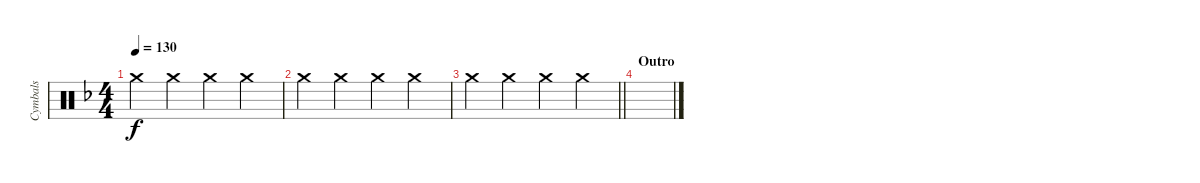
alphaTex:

\track ("Cymbals" "Cymbals") {instrument percussion}
\staff {score}
\articulation defaults
\ts (4 4)
\tempo 130
\clef neutral
\ks f "Crash medium (hit)".4{dy f} "Crash medium (hit)".4 "Crash medium (hit)".4 "Crash medium (hit)".4
|
"Crash medium (hit)".4 "Crash medium (hit)".4 "Crash medium (hit)".4 "Crash medium (hit)".4 |
\barLineRight lightlight "Crash medium (hit)".4 "Crash medium (hit)".4 "Crash medium (hit)".4 "Crash medium (hit)".4
|
\section ("" "Outro")
